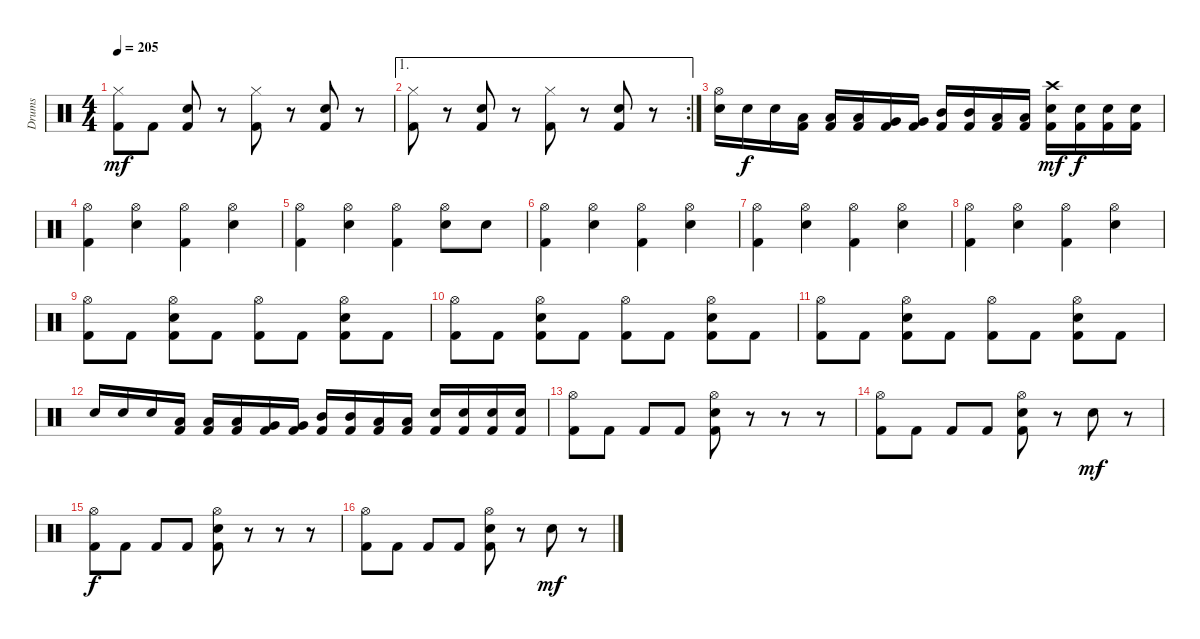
\track ("Drums" "Drums") {instrument percussion}
\staff {score}
\articulation defaults
\ts (4 4)
\tempo 205
\clef neutral
\ks c
("Hi-Hat (closed)" "Kick (hit) 2").8{dy mf} "Kick (hit) 2".8 ("Electric Snare (hit)" "Kick (hit) 2").8 r.8 ("Hi-Hat (closed)" "Kick (hit) 2").8 r.8 ("Electric Snare (hit)" "Kick (hit) 2").8 r.8 |
\ae 1
\rc 2
("Hi-Hat (closed)" "Kick (hit) 2").8 r.8 ("Electric Snare (hit)" "Kick (hit) 2").8 r.8 ("Hi-Hat (closed)" "Kick (hit) 2").8 r.8 ("Electric Snare (hit)" "Kick (hit) 2").8 r.8 |
("Hi-Hat (open)" "Electric Snare (hit)").16 "Electric Snare (hit)".16{dy f} "Electric Snare (hit)".16 ("Low Floor Tom (hit)" "Kick (hit) 2").16 ("Low Tom (hit)" "Kick (hit) 2").16 ("Low Tom (hit)" "Kick (hit) 2").16 ("Very Low Tom (hit)" "Kick (hit) 2").16 ("Very Low Tom (hit)" "Kick (hit) 2").16 ("Mid Tom (hit)" "Kick (hit) 2").16 ("Mid Tom (hit)" "Kick (hit) 2").16 ("Low Floor Tom (hit)" "Kick (hit) 2").16 ("Low Floor Tom (hit)" "Kick (hit) 2").16 ("Crash high (hit)" "Electric Snare (hit)" "Kick (hit) 2").16{dy mf} ("Electric Snare (hit)" "Kick (hit) 2").16{dy f} ("Electric Snare (hit)" "Kick (hit) 2").16 ("Electric Snare (hit)" "Kick (hit) 2").16 |
("Hi-Hat (open)" "Kick (hit) 2").4 ("Hi-Hat (open)" "Electric Snare (hit)").4 ("Hi-Hat (open)" "Kick (hit) 2").4 ("Hi-Hat (open)" "Electric Snare (hit)").4 |
("Hi-Hat (open)" "Kick (hit) 2").4 ("Hi-Hat (open)" "Electric Snare (hit)").4 ("Hi-Hat (open)" "Kick (hit) 2").4 ("Hi-Hat (open)" "Electric Snare (hit)").8 "Electric Snare (hit)".8 |
("Hi-Hat (open)" "Kick (hit) 2").4 ("Hi-Hat (open)" "Electric Snare (hit)").4 ("Hi-Hat (open)" "Kick (hit) 2").4 ("Hi-Hat (open)" "Electric Snare (hit)").4 |
("Hi-Hat (open)" "Kick (hit) 2").4 ("Hi-Hat (open)" "Electric Snare (hit)").4 ("Hi-Hat (open)" "Kick (hit) 2").4 ("Hi-Hat (open)" "Electric Snare (hit)").4 |
("Hi-Hat (open)" "Kick (hit) 2").4 ("Hi-Hat (open)" "Electric Snare (hit)").4 ("Hi-Hat (open)" "Kick (hit) 2").4 ("Hi-Hat (open)" "Electric Snare (hit)").4 |
("Hi-Hat (open)" "Kick (hit) 2").8 "Kick (hit) 2".8 ("Hi-Hat (open)" "Electric Snare (hit)" "Kick (hit) 2").8 "Kick (hit) 2".8 ("Hi-Hat (open)" "Kick (hit) 2").8 "Kick (hit) 2".8 ("Hi-Hat (open)" "Electric Snare (hit)" "Kick (hit) 2").8 "Kick (hit) 2".8 |
("Hi-Hat (open)" "Kick (hit) 2").8 "Kick (hit) 2".8 ("Hi-Hat (open)" "Electric Snare (hit)" "Kick (hit) 2").8 "Kick (hit) 2".8 ("Hi-Hat (open)" "Kick (hit) 2").8 "Kick (hit) 2".8 ("Hi-Hat (open)" "Electric Snare (hit)" "Kick (hit) 2").8 "Kick (hit) 2".8 |
("Hi-Hat (open)" "Kick (hit) 2").8 "Kick (hit) 2".8 ("Hi-Hat (open)" "Electric Snare (hit)" "Kick (hit) 2").8 "Kick (hit) 2".8 ("Hi-Hat (open)" "Kick (hit) 2").8 "Kick (hit) 2".8 ("Hi-Hat (open)" "Electric Snare (hit)" "Kick (hit) 2").8 "Kick (hit) 2".8 |
"Electric Snare (hit)".16 "Electric Snare (hit)".16 "Electric Snare (hit)".16 ("Low Floor Tom (hit)" "Kick (hit) 2").16 ("Low Tom (hit)" "Kick (hit) 2").16 ("Low Tom (hit)" "Kick (hit) 2").16 ("Very Low Tom (hit)" "Kick (hit) 2").16 ("Very Low Tom (hit)" "Kick (hit) 2").16 ("Mid Tom (hit)" "Kick (hit) 2").16 ("Mid Tom (hit)" "Kick (hit) 2").16 ("Low Floor Tom (hit)" "Kick (hit) 2").16 ("Low Floor Tom (hit)" "Kick (hit) 2").16 ("Electric Snare (hit)" "Kick (hit) 2").16 ("Electric Snare (hit)" "Kick (hit) 2").16 ("Electric Snare (hit)" "Kick (hit) 2").16 ("Electric Snare (hit)" "Kick (hit) 2").16 |
("Hi-Hat (open)" "Kick (hit) 2").8 "Kick (hit) 2".8 "Kick (hit) 2".8 "Kick (hit) 2".8 ("Hi-Hat (open)" "Electric Snare (hit)" "Kick (hit) 2").8 r.8 r.8 r.8 |
("Hi-Hat (open)" "Kick (hit) 2").8 "Kick (hit) 2".8 "Kick (hit) 2".8 "Kick (hit) 2".8 ("Hi-Hat (open)" "Electric Snare (hit)" "Kick (hit) 2").8 r.8 "Electric Snare (hit)".8{dy mf} r.8 |
("Hi-Hat (open)" "Kick (hit) 2").8{dy f} "Kick (hit) 2".8 "Kick (hit) 2".8 "Kick (hit) 2".8 ("Hi-Hat (open)" "Electric Snare (hit)" "Kick (hit) 2").8 r.8 r.8 r.8 |
("Hi-Hat (open)" "Kick (hit) 2").8 "Kick (hit) 2".8 "Kick (hit) 2".8 "Kick (hit) 2".8 ("Hi-Hat (open)" "Electric Snare (hit)" "Kick (hit) 2").8 r.8 "Electric Snare (hit)".8{dy mf} r.8
